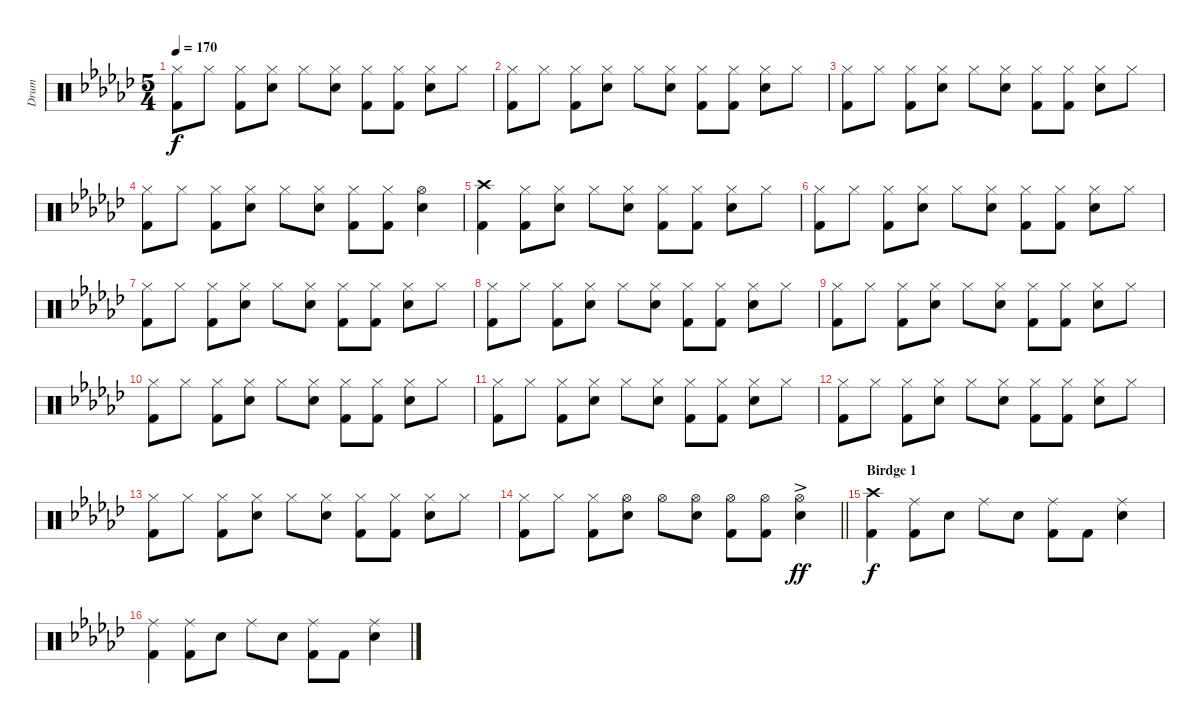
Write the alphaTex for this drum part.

\track ("Drum" "Drum") {instrument percussion}
\staff {score}
\articulation defaults
\ts (5 4)
\tempo 170
\clef neutral
\ks gb
("Hi-Hat (closed)" "Kick (hit) 2").8{dy f} "Hi-Hat (closed)".8 ("Hi-Hat (closed)" "Kick (hit) 2").8 ("Hi-Hat (closed)" "Snare (hit) 2").8 "Hi-Hat (closed)".8 ("Hi-Hat (closed)" "Snare (hit) 2").8 ("Hi-Hat (closed)" "Kick (hit) 2").8 ("Hi-Hat (closed)" "Kick (hit) 2").8 ("Hi-Hat (closed)" "Snare (hit) 2").8 "Hi-Hat (closed)".8 |
("Hi-Hat (closed)" "Kick (hit) 2").8 "Hi-Hat (closed)".8 ("Hi-Hat (closed)" "Kick (hit) 2").8 ("Hi-Hat (closed)" "Snare (hit) 2").8 "Hi-Hat (closed)".8 ("Hi-Hat (closed)" "Snare (hit) 2").8 ("Hi-Hat (closed)" "Kick (hit) 2").8 ("Hi-Hat (closed)" "Kick (hit) 2").8 ("Hi-Hat (closed)" "Snare (hit) 2").8 "Hi-Hat (closed)".8 |
("Hi-Hat (closed)" "Kick (hit) 2").8 "Hi-Hat (closed)".8 ("Hi-Hat (closed)" "Kick (hit) 2").8 ("Hi-Hat (closed)" "Snare (hit) 2").8 "Hi-Hat (closed)".8 ("Hi-Hat (closed)" "Snare (hit) 2").8 ("Hi-Hat (closed)" "Kick (hit) 2").8 ("Hi-Hat (closed)" "Kick (hit) 2").8 ("Hi-Hat (closed)" "Snare (hit) 2").8 "Hi-Hat (closed)".8 |
("Hi-Hat (closed)" "Kick (hit) 2").8 "Hi-Hat (closed)".8 ("Hi-Hat (closed)" "Kick (hit) 2").8 ("Hi-Hat (closed)" "Snare (hit) 2").8 "Hi-Hat (closed)".8 ("Hi-Hat (closed)" "Snare (hit) 2").8 ("Hi-Hat (closed)" "Kick (hit) 2").8 ("Hi-Hat (closed)" "Kick (hit) 2").8 ("Hi-Hat (open)" "Snare (hit) 2").4 |
("Crash high (hit)" "Kick (hit) 2").4 ("Hi-Hat (closed)" "Kick (hit) 2").8 ("Hi-Hat (closed)" "Snare (hit) 2").8 "Hi-Hat (closed)".8 ("Hi-Hat (closed)" "Snare (hit) 2").8 ("Hi-Hat (closed)" "Kick (hit) 2").8 ("Hi-Hat (closed)" "Kick (hit) 2").8 ("Hi-Hat (closed)" "Snare (hit) 2").8 "Hi-Hat (closed)".8 |
("Hi-Hat (closed)" "Kick (hit) 2").8 "Hi-Hat (closed)".8 ("Hi-Hat (closed)" "Kick (hit) 2").8 ("Hi-Hat (closed)" "Snare (hit) 2").8 "Hi-Hat (closed)".8 ("Hi-Hat (closed)" "Snare (hit) 2").8 ("Hi-Hat (closed)" "Kick (hit) 2").8 ("Hi-Hat (closed)" "Kick (hit) 2").8 ("Hi-Hat (closed)" "Snare (hit) 2").8 "Hi-Hat (closed)".8 |
("Hi-Hat (closed)" "Kick (hit) 2").8 "Hi-Hat (closed)".8 ("Hi-Hat (closed)" "Kick (hit) 2").8 ("Hi-Hat (closed)" "Snare (hit) 2").8 "Hi-Hat (closed)".8 ("Hi-Hat (closed)" "Snare (hit) 2").8 ("Hi-Hat (closed)" "Kick (hit) 2").8 ("Hi-Hat (closed)" "Kick (hit) 2").8 ("Hi-Hat (closed)" "Snare (hit) 2").8 "Hi-Hat (closed)".8 |
("Hi-Hat (closed)" "Kick (hit) 2").8 "Hi-Hat (closed)".8 ("Hi-Hat (closed)" "Kick (hit) 2").8 ("Hi-Hat (closed)" "Snare (hit) 2").8 "Hi-Hat (closed)".8 ("Hi-Hat (closed)" "Snare (hit) 2").8 ("Hi-Hat (closed)" "Kick (hit) 2").8 ("Hi-Hat (closed)" "Kick (hit) 2").8 ("Hi-Hat (closed)" "Snare (hit) 2").8 "Hi-Hat (closed)".8 |
("Hi-Hat (closed)" "Kick (hit) 2").8 "Hi-Hat (closed)".8 ("Hi-Hat (closed)" "Kick (hit) 2").8 ("Hi-Hat (closed)" "Snare (hit) 2").8 "Hi-Hat (closed)".8 ("Hi-Hat (closed)" "Snare (hit) 2").8 ("Hi-Hat (closed)" "Kick (hit) 2").8 ("Hi-Hat (closed)" "Kick (hit) 2").8 ("Hi-Hat (closed)" "Snare (hit) 2").8 "Hi-Hat (closed)".8 |
("Hi-Hat (closed)" "Kick (hit) 2").8 "Hi-Hat (closed)".8 ("Hi-Hat (closed)" "Kick (hit) 2").8 ("Hi-Hat (closed)" "Snare (hit) 2").8 "Hi-Hat (closed)".8 ("Hi-Hat (closed)" "Snare (hit) 2").8 ("Hi-Hat (closed)" "Kick (hit) 2").8 ("Hi-Hat (closed)" "Kick (hit) 2").8 ("Hi-Hat (closed)" "Snare (hit) 2").8 "Hi-Hat (closed)".8 |
("Hi-Hat (closed)" "Kick (hit) 2").8 "Hi-Hat (closed)".8 ("Hi-Hat (closed)" "Kick (hit) 2").8 ("Hi-Hat (closed)" "Snare (hit) 2").8 "Hi-Hat (closed)".8 ("Hi-Hat (closed)" "Snare (hit) 2").8 ("Hi-Hat (closed)" "Kick (hit) 2").8 ("Hi-Hat (closed)" "Kick (hit) 2").8 ("Hi-Hat (closed)" "Snare (hit) 2").8 "Hi-Hat (closed)".8 |
("Hi-Hat (closed)" "Kick (hit) 2").8 "Hi-Hat (closed)".8 ("Hi-Hat (closed)" "Kick (hit) 2").8 ("Hi-Hat (closed)" "Snare (hit) 2").8 "Hi-Hat (closed)".8 ("Hi-Hat (closed)" "Snare (hit) 2").8 ("Hi-Hat (closed)" "Kick (hit) 2").8 ("Hi-Hat (closed)" "Kick (hit) 2").8 ("Hi-Hat (closed)" "Snare (hit) 2").8 "Hi-Hat (closed)".8 |
("Hi-Hat (closed)" "Kick (hit) 2").8 "Hi-Hat (closed)".8 ("Hi-Hat (closed)" "Kick (hit) 2").8 ("Hi-Hat (closed)" "Snare (hit) 2").8 "Hi-Hat (closed)".8 ("Hi-Hat (closed)" "Snare (hit) 2").8 ("Hi-Hat (closed)" "Kick (hit) 2").8 ("Hi-Hat (closed)" "Kick (hit) 2").8 ("Hi-Hat (closed)" "Snare (hit) 2").8 "Hi-Hat (closed)".8 |
\barLineRight lightlight
("Hi-Hat (closed)" "Kick (hit) 2").8 "Hi-Hat (closed)".8 ("Hi-Hat (closed)" "Kick (hit) 2").8 ("Hi-Hat (open)" "Snare (hit) 2").8 "Hi-Hat (open)".8 ("Hi-Hat (open)" "Snare (hit) 2").8 ("Hi-Hat (open)" "Kick (hit) 2").8 ("Hi-Hat (open)" "Kick (hit) 2").8 ("Hi-Hat (open)"{ac} "Snare (hit) 2").4{dy ff} |
\section ("" "Birdge 1")
("Crash high (hit)" "Kick (hit) 2").4{dy f} ("Ride (middle)" "Kick (hit) 2").8 "Snare (hit) 2".8 "Ride (middle)".8 "Snare (hit) 2".8 ("Ride (middle)" "Kick (hit) 2").8 "Kick (hit) 2".8 ("Ride (middle)" "Snare (hit) 2").4 |
("Ride (middle)" "Kick (hit) 2").4 ("Ride (middle)" "Kick (hit) 2").8 "Snare (hit) 2".8 "Ride (middle)".8 "Snare (hit) 2".8 ("Ride (middle)" "Kick (hit) 2").8 "Kick (hit) 2".8 ("Ride (middle)" "Snare (hit) 2").4
